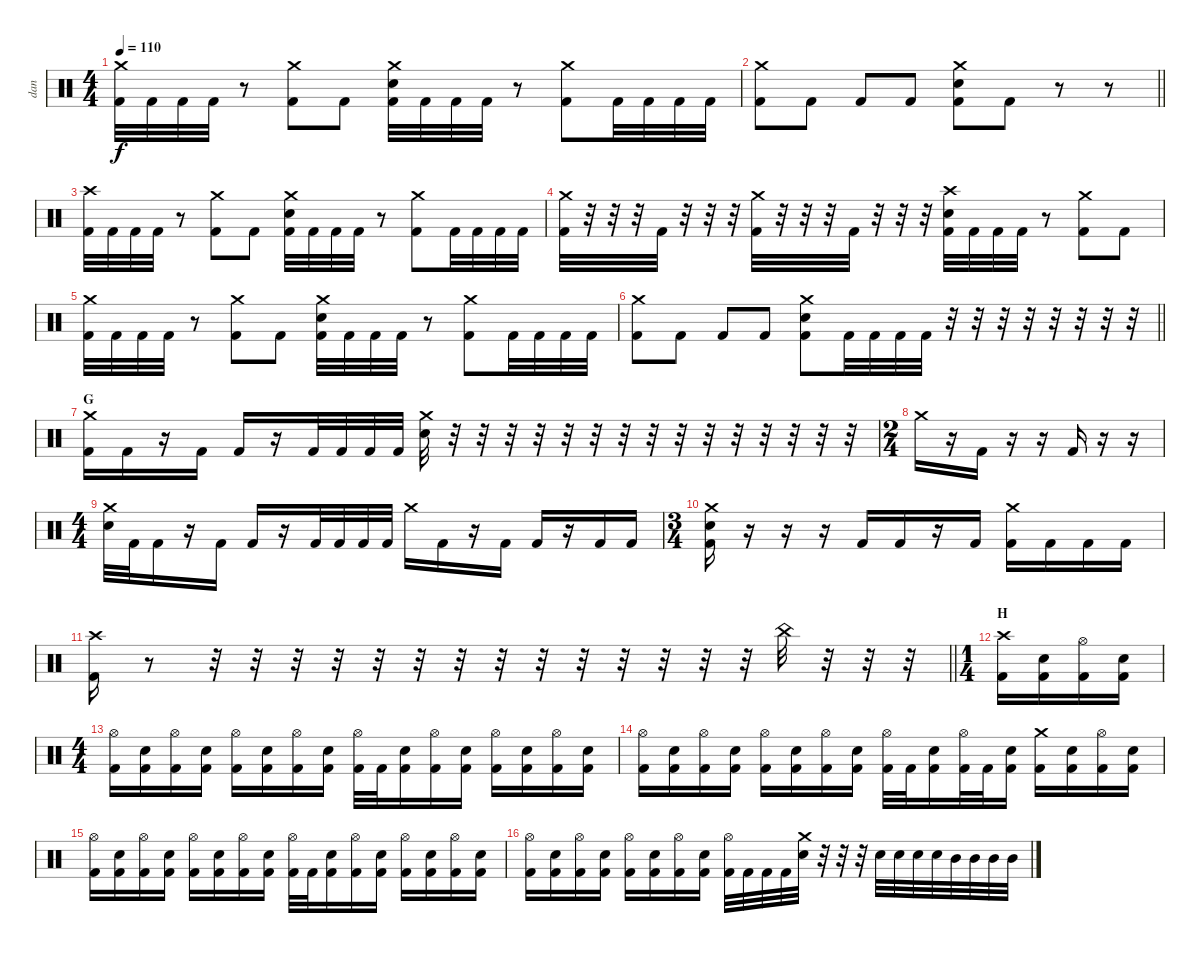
\track ("dan" "dan") {instrument percussion}
\staff {score}
\articulation defaults
\ts (4 4)
\tempo 110
\clef neutral
\ks c
("Crash medium (hit)" "Kick (hit) 2").32{dy f} "Kick (hit) 2".32 "Kick (hit) 2".32 "Kick (hit) 2".32 r.8 ("Crash medium (hit)" "Kick (hit) 2").8 "Kick (hit) 2".8 ("Crash medium (hit)" "Electric Snare (hit)" "Kick (hit) 2").32 "Kick (hit) 2".32 "Kick (hit) 2".32 "Kick (hit) 2".32 r.8 ("Crash medium (hit)" "Kick (hit) 2").8 "Kick (hit) 2".32 "Kick (hit) 2".32 "Kick (hit) 2".32 "Kick (hit) 2".32 |
\barLineRight lightlight
("Crash medium (hit)" "Kick (hit) 2").8 "Kick (hit) 2".8 "Kick (hit) 2".8 "Kick (hit) 2".8 ("Crash medium (hit)" "Electric Snare (hit)" "Kick (hit) 2").8 "Kick (hit) 2".8 r.8 r.8 |
("Crash high (hit)" "Kick (hit) 2").32 "Kick (hit) 2".32 "Kick (hit) 2".32 "Kick (hit) 2".32 r.8 ("Crash medium (hit)" "Kick (hit) 2").8 "Kick (hit) 2".8 ("Crash medium (hit)" "Electric Snare (hit)" "Kick (hit) 2").32 "Kick (hit) 2".32 "Kick (hit) 2".32 "Kick (hit) 2".32 r.8 ("Crash medium (hit)" "Kick (hit) 2").8 "Kick (hit) 2".32 "Kick (hit) 2".32 "Kick (hit) 2".32 "Kick (hit) 2".32 |
("Crash medium (hit)" "Kick (hit) 2").32 r.32 r.32 r.32 "Kick (hit) 2".32 r.32 r.32 r.32 ("Crash medium (hit)" "Kick (hit) 2").32 r.32 r.32 r.32 "Kick (hit) 2".32 r.32 r.32 r.32 ("Crash high (hit)" "Electric Snare (hit)" "Kick (hit) 2").32 "Kick (hit) 2".32 "Kick (hit) 2".32 "Kick (hit) 2".32 r.8 ("Crash medium (hit)" "Kick (hit) 2").8 "Kick (hit) 2".8 |
("Crash medium (hit)" "Kick (hit) 2").32 "Kick (hit) 2".32 "Kick (hit) 2".32 "Kick (hit) 2".32 r.8 ("Crash medium (hit)" "Kick (hit) 2").8 "Kick (hit) 2".8 ("Crash medium (hit)" "Electric Snare (hit)" "Kick (hit) 2").32 "Kick (hit) 2".32 "Kick (hit) 2".32 "Kick (hit) 2".32 r.8 ("Crash medium (hit)" "Kick (hit) 2").8 "Kick (hit) 2".32 "Kick (hit) 2".32 "Kick (hit) 2".32 "Kick (hit) 2".32 |
\barLineRight lightlight
("Crash medium (hit)" "Kick (hit) 2").8 "Kick (hit) 2".8 "Kick (hit) 2".8 "Kick (hit) 2".8 ("Crash medium (hit)" "Electric Snare (hit)" "Kick (hit) 2").8 "Kick (hit) 2".32 "Kick (hit) 2".32 "Kick (hit) 2".32 "Kick (hit) 2".32 r.32 r.32 r.32 r.32 r.32 r.32 r.32 r.32 |
\section ("" "G")
("Crash medium (hit)" "Kick (hit) 2").16 "Kick (hit) 2".16 r.16 "Kick (hit) 2".16 "Kick (hit) 2".16 r.16 "Kick (hit) 2".32 "Kick (hit) 2".32 "Kick (hit) 2".32 "Kick (hit) 2".32 ("Crash medium (hit)" "Electric Snare (hit)").32 r.32 r.32 r.32 r.32 r.32 r.32 r.32 r.32 r.32 r.32 r.32 r.32 r.32 r.32 r.32 |
\ts (2 4)
"Crash medium (hit)".16 r.16 "Kick (hit) 2".16 r.16 r.16 "Kick (hit) 2".16 r.16 r.16 |
\ts (4 4)
("Crash medium (hit)" "Electric Snare (hit)").32 "Kick (hit) 2".32 "Kick (hit) 2".16 r.16 "Kick (hit) 2".16 "Kick (hit) 2".16 r.16 "Kick (hit) 2".32 "Kick (hit) 2".32 "Kick (hit) 2".32 "Kick (hit) 2".32 "Crash medium (hit)".16 "Kick (hit) 2".16 r.16 "Kick (hit) 2".16 "Kick (hit) 2".16 r.16 "Kick (hit) 2".16 "Kick (hit) 2".16 |
\ts (3 4)
("Crash medium (hit)" "Electric Snare (hit)" "Kick (hit) 2").16 r.16 r.16 r.16 "Kick (hit) 2".16 "Kick (hit) 2".16 r.16 "Kick (hit) 2".16 ("Crash medium (hit)" "Kick (hit) 2").16 "Kick (hit) 2".16 "Kick (hit) 2".16 "Kick (hit) 2".16 |
\barLineRight lightlight
("Crash high (hit)" "Kick (hit) 2").16 r.8 r.32 r.32 r.32 r.32 r.32 r.32 r.32 r.32 r.32 r.32 r.32 r.32 r.32 r.32 "China (hit)".32 r.32 r.32 r.32 |
\ts (1 4)
\section ("" "H")
("Crash high (hit)" "Kick (hit) 2").16 ("Electric Snare (hit)" "Kick (hit) 2").16 ("Hi-Hat (open)" "Kick (hit) 2").16 ("Electric Snare (hit)" "Kick (hit) 2").16 |
\ts (4 4)
("Hi-Hat (open)" "Kick (hit) 2").16 ("Electric Snare (hit)" "Kick (hit) 2").16 ("Hi-Hat (open)" "Kick (hit) 2").16 ("Electric Snare (hit)" "Kick (hit) 2").16 ("Hi-Hat (open)" "Kick (hit) 2").16 ("Electric Snare (hit)" "Kick (hit) 2").16 ("Hi-Hat (open)" "Kick (hit) 2").16 ("Electric Snare (hit)" "Kick (hit) 2").16 ("Hi-Hat (open)" "Kick (hit) 2").32 "Kick (hit) 2".32 ("Electric Snare (hit)" "Kick (hit) 2").16 ("Hi-Hat (open)" "Kick (hit) 2").16 ("Electric Snare (hit)" "Kick (hit) 2").16 ("Hi-Hat (open)" "Kick (hit) 2").16 ("Electric Snare (hit)" "Kick (hit) 2").16 ("Hi-Hat (open)" "Kick (hit) 2").16 ("Electric Snare (hit)" "Kick (hit) 2").16 |
("Hi-Hat (open)" "Kick (hit) 2").16 ("Electric Snare (hit)" "Kick (hit) 2").16 ("Hi-Hat (open)" "Kick (hit) 2").16 ("Electric Snare (hit)" "Kick (hit) 2").16 ("Hi-Hat (open)" "Kick (hit) 2").16 ("Electric Snare (hit)" "Kick (hit) 2").16 ("Hi-Hat (open)" "Kick (hit) 2").16 ("Electric Snare (hit)" "Kick (hit) 2").16 ("Hi-Hat (open)" "Kick (hit) 2").32 "Kick (hit) 2".32 ("Electric Snare (hit)" "Kick (hit) 2").16 ("Hi-Hat (open)" "Kick (hit) 2").32 "Kick (hit) 2".32 ("Electric Snare (hit)" "Kick (hit) 2").16 ("Crash medium (hit)" "Kick (hit) 2").16 ("Electric Snare (hit)" "Kick (hit) 2").16 ("Hi-Hat (open)" "Kick (hit) 2").16 ("Electric Snare (hit)" "Kick (hit) 2").16 |
("Hi-Hat (open)" "Kick (hit) 2").16 ("Electric Snare (hit)" "Kick (hit) 2").16 ("Hi-Hat (open)" "Kick (hit) 2").16 ("Electric Snare (hit)" "Kick (hit) 2").16 ("Hi-Hat (open)" "Kick (hit) 2").16 ("Electric Snare (hit)" "Kick (hit) 2").16 ("Hi-Hat (open)" "Kick (hit) 2").16 ("Electric Snare (hit)" "Kick (hit) 2").16 ("Hi-Hat (open)" "Kick (hit) 2").32 "Kick (hit) 2".32 ("Electric Snare (hit)" "Kick (hit) 2").16 ("Hi-Hat (open)" "Kick (hit) 2").16 ("Electric Snare (hit)" "Kick (hit) 2").16 ("Hi-Hat (open)" "Kick (hit) 2").16 ("Electric Snare (hit)" "Kick (hit) 2").16 ("Hi-Hat (open)" "Kick (hit) 2").16 ("Electric Snare (hit)" "Kick (hit) 2").16 |
("Hi-Hat (open)" "Kick (hit) 2").16 ("Electric Snare (hit)" "Kick (hit) 2").16 ("Hi-Hat (open)" "Kick (hit) 2").16 ("Electric Snare (hit)" "Kick (hit) 2").16 ("Hi-Hat (open)" "Kick (hit) 2").16 ("Electric Snare (hit)" "Kick (hit) 2").16 ("Hi-Hat (open)" "Kick (hit) 2").16 ("Electric Snare (hit)" "Kick (hit) 2").16 ("Hi-Hat (open)" "Kick (hit) 2").32 "Kick (hit) 2".32 "Kick (hit) 2".32 "Kick (hit) 2".32 ("Crash medium (hit)" "Electric Snare (hit)").32 r.32 r.32 r.32 "Electric Snare (hit)".32 "Electric Snare (hit)".32 "Electric Snare (hit)".32 "Electric Snare (hit)".32 "Mid Tom (hit)".32 "Mid Tom (hit)".32 "Mid Tom (hit)".32 "Mid Tom (hit)".32
